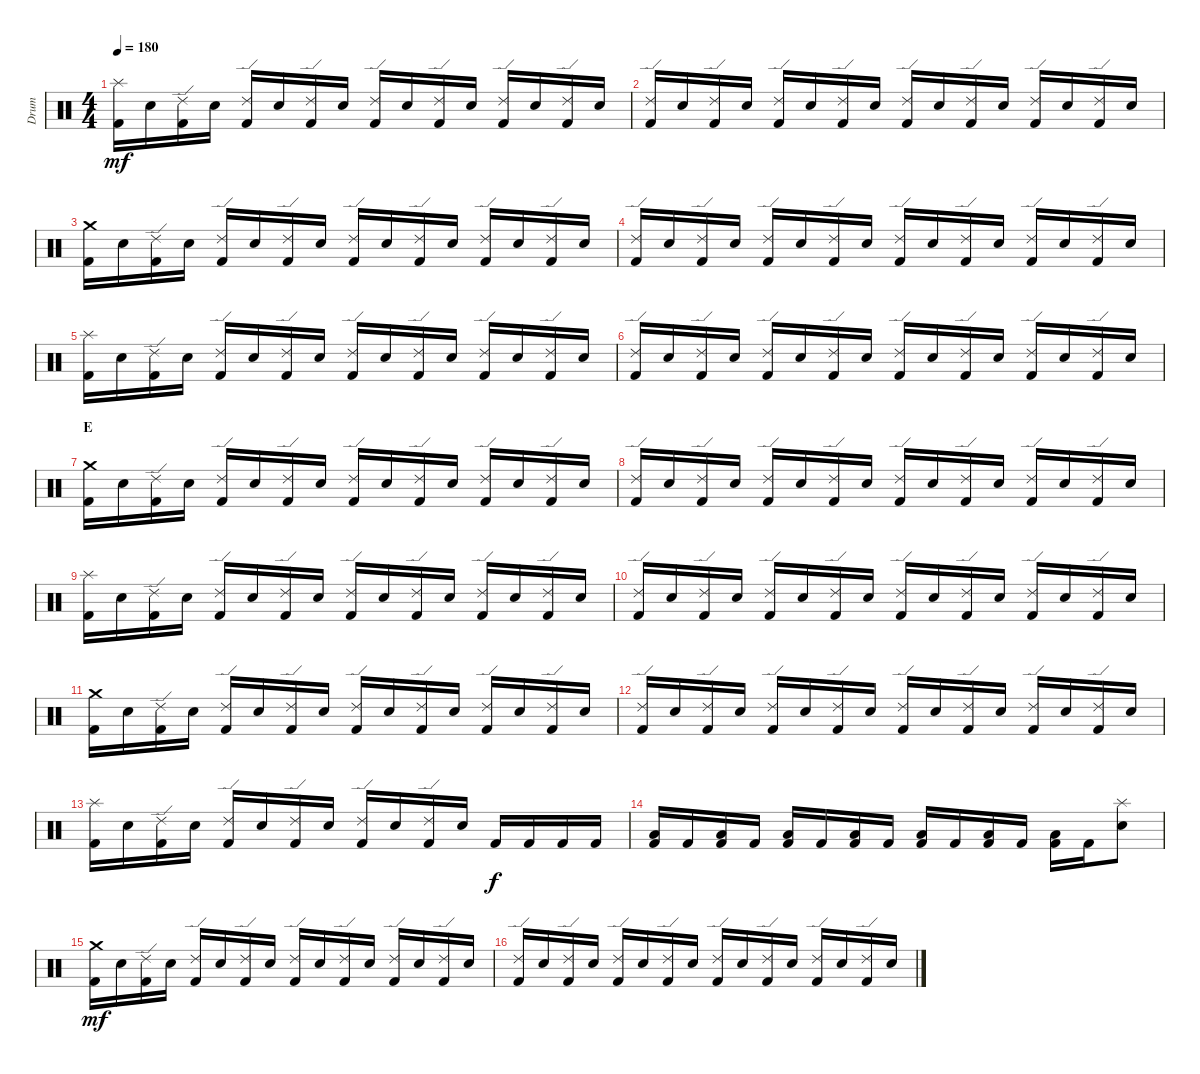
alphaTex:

\track ("Drum" "Drum") {instrument percussion}
\staff {score}
\articulation defaults
\ts (4 4)
\tempo 180
\clef neutral
\ks c
("Splash (hit)" "Kick (hit) 2").16{dy mf} "Electric Snare (hit)".16 ("Ride (edge) 2" "Kick (hit) 2").16 "Electric Snare (hit)".16 ("Ride (edge) 2" "Kick (hit) 2").16 "Electric Snare (hit)".16 ("Ride (edge) 2" "Kick (hit) 2").16 "Electric Snare (hit)".16 ("Ride (edge) 2" "Kick (hit) 2").16 "Electric Snare (hit)".16 ("Ride (edge) 2" "Kick (hit) 2").16 "Electric Snare (hit)".16 ("Ride (edge) 2" "Kick (hit) 2").16 "Electric Snare (hit)".16 ("Ride (edge) 2" "Kick (hit) 2").16 "Electric Snare (hit)".16 |
("Ride (edge) 2" "Kick (hit) 2").16 "Electric Snare (hit)".16 ("Ride (edge) 2" "Kick (hit) 2").16 "Electric Snare (hit)".16 ("Ride (edge) 2" "Kick (hit) 2").16 "Electric Snare (hit)".16 ("Ride (edge) 2" "Kick (hit) 2").16 "Electric Snare (hit)".16 ("Ride (edge) 2" "Kick (hit) 2").16 "Electric Snare (hit)".16 ("Ride (edge) 2" "Kick (hit) 2").16 "Electric Snare (hit)".16 ("Ride (edge) 2" "Kick (hit) 2").16 "Electric Snare (hit)".16 ("Ride (edge) 2" "Kick (hit) 2").16 "Electric Snare (hit)".16 |
("Crash medium (hit)" "Kick (hit) 2").16 "Electric Snare (hit)".16 ("Ride (edge) 2" "Kick (hit) 2").16 "Electric Snare (hit)".16 ("Ride (edge) 2" "Kick (hit) 2").16 "Electric Snare (hit)".16 ("Ride (edge) 2" "Kick (hit) 2").16 "Electric Snare (hit)".16 ("Ride (edge) 2" "Kick (hit) 2").16 "Electric Snare (hit)".16 ("Ride (edge) 2" "Kick (hit) 2").16 "Electric Snare (hit)".16 ("Ride (edge) 2" "Kick (hit) 2").16 "Electric Snare (hit)".16 ("Ride (edge) 2" "Kick (hit) 2").16 "Electric Snare (hit)".16 |
("Ride (edge) 2" "Kick (hit) 2").16 "Electric Snare (hit)".16 ("Ride (edge) 2" "Kick (hit) 2").16 "Electric Snare (hit)".16 ("Ride (edge) 2" "Kick (hit) 2").16 "Electric Snare (hit)".16 ("Ride (edge) 2" "Kick (hit) 2").16 "Electric Snare (hit)".16 ("Ride (edge) 2" "Kick (hit) 2").16 "Electric Snare (hit)".16 ("Ride (edge) 2" "Kick (hit) 2").16 "Electric Snare (hit)".16 ("Ride (edge) 2" "Kick (hit) 2").16 "Electric Snare (hit)".16 ("Ride (edge) 2" "Kick (hit) 2").16 "Electric Snare (hit)".16 |
("Splash (hit)" "Kick (hit) 2").16 "Electric Snare (hit)".16 ("Ride (edge) 2" "Kick (hit) 2").16 "Electric Snare (hit)".16 ("Ride (edge) 2" "Kick (hit) 2").16 "Electric Snare (hit)".16 ("Ride (edge) 2" "Kick (hit) 2").16 "Electric Snare (hit)".16 ("Ride (edge) 2" "Kick (hit) 2").16 "Electric Snare (hit)".16 ("Ride (edge) 2" "Kick (hit) 2").16 "Electric Snare (hit)".16 ("Ride (edge) 2" "Kick (hit) 2").16 "Electric Snare (hit)".16 ("Ride (edge) 2" "Kick (hit) 2").16 "Electric Snare (hit)".16 |
("Ride (edge) 2" "Kick (hit) 2").16 "Electric Snare (hit)".16 ("Ride (edge) 2" "Kick (hit) 2").16 "Electric Snare (hit)".16 ("Ride (edge) 2" "Kick (hit) 2").16 "Electric Snare (hit)".16 ("Ride (edge) 2" "Kick (hit) 2").16 "Electric Snare (hit)".16 ("Ride (edge) 2" "Kick (hit) 2").16 "Electric Snare (hit)".16 ("Ride (edge) 2" "Kick (hit) 2").16 "Electric Snare (hit)".16 ("Ride (edge) 2" "Kick (hit) 2").16 "Electric Snare (hit)".16 ("Ride (edge) 2" "Kick (hit) 2").16 "Electric Snare (hit)".16 |
\section ("" "E")
("Crash medium (hit)" "Kick (hit) 2").16 "Electric Snare (hit)".16 ("Ride (edge) 2" "Kick (hit) 2").16 "Electric Snare (hit)".16 ("Ride (edge) 2" "Kick (hit) 2").16 "Electric Snare (hit)".16 ("Ride (edge) 2" "Kick (hit) 2").16 "Electric Snare (hit)".16 ("Ride (edge) 2" "Kick (hit) 2").16 "Electric Snare (hit)".16 ("Ride (edge) 2" "Kick (hit) 2").16 "Electric Snare (hit)".16 ("Ride (edge) 2" "Kick (hit) 2").16 "Electric Snare (hit)".16 ("Ride (edge) 2" "Kick (hit) 2").16 "Electric Snare (hit)".16 |
("Ride (edge) 2" "Kick (hit) 2").16 "Electric Snare (hit)".16 ("Ride (edge) 2" "Kick (hit) 2").16 "Electric Snare (hit)".16 ("Ride (edge) 2" "Kick (hit) 2").16 "Electric Snare (hit)".16 ("Ride (edge) 2" "Kick (hit) 2").16 "Electric Snare (hit)".16 ("Ride (edge) 2" "Kick (hit) 2").16 "Electric Snare (hit)".16 ("Ride (edge) 2" "Kick (hit) 2").16 "Electric Snare (hit)".16 ("Ride (edge) 2" "Kick (hit) 2").16 "Electric Snare (hit)".16 ("Ride (edge) 2" "Kick (hit) 2").16 "Electric Snare (hit)".16 |
("Splash (hit)" "Kick (hit) 2").16 "Electric Snare (hit)".16 ("Ride (edge) 2" "Kick (hit) 2").16 "Electric Snare (hit)".16 ("Ride (edge) 2" "Kick (hit) 2").16 "Electric Snare (hit)".16 ("Ride (edge) 2" "Kick (hit) 2").16 "Electric Snare (hit)".16 ("Ride (edge) 2" "Kick (hit) 2").16 "Electric Snare (hit)".16 ("Ride (edge) 2" "Kick (hit) 2").16 "Electric Snare (hit)".16 ("Ride (edge) 2" "Kick (hit) 2").16 "Electric Snare (hit)".16 ("Ride (edge) 2" "Kick (hit) 2").16 "Electric Snare (hit)".16 |
("Ride (edge) 2" "Kick (hit) 2").16 "Electric Snare (hit)".16 ("Ride (edge) 2" "Kick (hit) 2").16 "Electric Snare (hit)".16 ("Ride (edge) 2" "Kick (hit) 2").16 "Electric Snare (hit)".16 ("Ride (edge) 2" "Kick (hit) 2").16 "Electric Snare (hit)".16 ("Ride (edge) 2" "Kick (hit) 2").16 "Electric Snare (hit)".16 ("Ride (edge) 2" "Kick (hit) 2").16 "Electric Snare (hit)".16 ("Ride (edge) 2" "Kick (hit) 2").16 "Electric Snare (hit)".16 ("Ride (edge) 2" "Kick (hit) 2").16 "Electric Snare (hit)".16 |
("Crash medium (hit)" "Kick (hit) 2").16 "Electric Snare (hit)".16 ("Ride (edge) 2" "Kick (hit) 2").16 "Electric Snare (hit)".16 ("Ride (edge) 2" "Kick (hit) 2").16 "Electric Snare (hit)".16 ("Ride (edge) 2" "Kick (hit) 2").16 "Electric Snare (hit)".16 ("Ride (edge) 2" "Kick (hit) 2").16 "Electric Snare (hit)".16 ("Ride (edge) 2" "Kick (hit) 2").16 "Electric Snare (hit)".16 ("Ride (edge) 2" "Kick (hit) 2").16 "Electric Snare (hit)".16 ("Ride (edge) 2" "Kick (hit) 2").16 "Electric Snare (hit)".16 |
("Ride (edge) 2" "Kick (hit) 2").16 "Electric Snare (hit)".16 ("Ride (edge) 2" "Kick (hit) 2").16 "Electric Snare (hit)".16 ("Ride (edge) 2" "Kick (hit) 2").16 "Electric Snare (hit)".16 ("Ride (edge) 2" "Kick (hit) 2").16 "Electric Snare (hit)".16 ("Ride (edge) 2" "Kick (hit) 2").16 "Electric Snare (hit)".16 ("Ride (edge) 2" "Kick (hit) 2").16 "Electric Snare (hit)".16 ("Ride (edge) 2" "Kick (hit) 2").16 "Electric Snare (hit)".16 ("Ride (edge) 2" "Kick (hit) 2").16 "Electric Snare (hit)".16 |
("Splash (hit)" "Kick (hit) 2").16 "Electric Snare (hit)".16 ("Ride (edge) 2" "Kick (hit) 2").16 "Electric Snare (hit)".16 ("Ride (edge) 2" "Kick (hit) 2").16 "Electric Snare (hit)".16 ("Ride (edge) 2" "Kick (hit) 2").16 "Electric Snare (hit)".16 ("Ride (edge) 2" "Kick (hit) 2").16 "Electric Snare (hit)".16 ("Ride (edge) 2" "Kick (hit) 2").16 "Electric Snare (hit)".16 "Kick (hit) 2".16{dy f} "Kick (hit) 2".16 "Kick (hit) 2".16 "Kick (hit) 2".16 |
("Low Tom (hit)" "Kick (hit) 2").16 "Kick (hit) 2".16 ("Low Tom (hit)" "Kick (hit) 2").16 "Kick (hit) 2".16 ("Low Tom (hit)" "Kick (hit) 2").16 "Kick (hit) 2".16 ("Low Tom (hit)" "Kick (hit) 2").16 "Kick (hit) 2".16 ("Low Tom (hit)" "Kick (hit) 2").16 "Kick (hit) 2".16 ("Low Tom (hit)" "Kick (hit) 2").16 "Kick (hit) 2".16 ("Low Tom (hit)" "Kick (hit) 2").16 "Kick (hit) 2".16 ("Splash (hit)" "Electric Snare (hit)").8 |
("Crash medium (hit)" "Kick (hit) 2").16{dy mf} "Electric Snare (hit)".16 ("Ride (edge) 2" "Kick (hit) 2").16 "Electric Snare (hit)".16 ("Ride (edge) 2" "Kick (hit) 2").16 "Electric Snare (hit)".16 ("Ride (edge) 2" "Kick (hit) 2").16 "Electric Snare (hit)".16 ("Ride (edge) 2" "Kick (hit) 2").16 "Electric Snare (hit)".16 ("Ride (edge) 2" "Kick (hit) 2").16 "Electric Snare (hit)".16 ("Ride (edge) 2" "Kick (hit) 2").16 "Electric Snare (hit)".16 ("Ride (edge) 2" "Kick (hit) 2").16 "Electric Snare (hit)".16 |
("Ride (edge) 2" "Kick (hit) 2").16 "Electric Snare (hit)".16 ("Ride (edge) 2" "Kick (hit) 2").16 "Electric Snare (hit)".16 ("Ride (edge) 2" "Kick (hit) 2").16 "Electric Snare (hit)".16 ("Ride (edge) 2" "Kick (hit) 2").16 "Electric Snare (hit)".16 ("Ride (edge) 2" "Kick (hit) 2").16 "Electric Snare (hit)".16 ("Ride (edge) 2" "Kick (hit) 2").16 "Electric Snare (hit)".16 ("Ride (edge) 2" "Kick (hit) 2").16 "Electric Snare (hit)".16 ("Ride (edge) 2" "Kick (hit) 2").16 "Electric Snare (hit)".16
